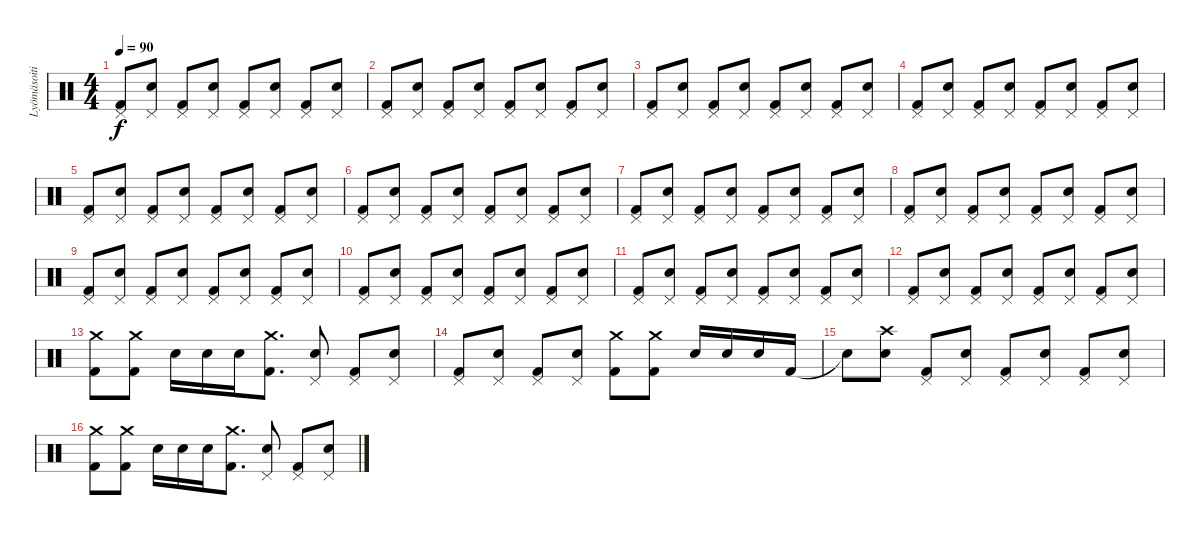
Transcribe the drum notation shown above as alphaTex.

\track ("Lyömäsoitin" "Lyömäsoiti") {instrument percussion}
\staff {score}
\articulation defaults
\ts (4 4)
\tempo 90
\clef neutral
\ks c
("Pedal Hi-Hat (hit)" "Kick (hit) 2").8{dy f} ("Pedal Hi-Hat (hit)" "Snare (hit) 2").8 ("Pedal Hi-Hat (hit)" "Kick (hit) 2").8 ("Pedal Hi-Hat (hit)" "Snare (hit) 2").8 ("Pedal Hi-Hat (hit)" "Kick (hit) 2").8 ("Pedal Hi-Hat (hit)" "Snare (hit) 2").8 ("Pedal Hi-Hat (hit)" "Kick (hit) 2").8 ("Pedal Hi-Hat (hit)" "Snare (hit) 2").8 |
("Pedal Hi-Hat (hit)" "Kick (hit) 2").8 ("Pedal Hi-Hat (hit)" "Snare (hit) 2").8 ("Pedal Hi-Hat (hit)" "Kick (hit) 2").8 ("Pedal Hi-Hat (hit)" "Snare (hit) 2").8 ("Pedal Hi-Hat (hit)" "Kick (hit) 2").8 ("Pedal Hi-Hat (hit)" "Snare (hit) 2").8 ("Pedal Hi-Hat (hit)" "Kick (hit) 2").8 ("Pedal Hi-Hat (hit)" "Snare (hit) 2").8 |
("Pedal Hi-Hat (hit)" "Kick (hit) 2").8 ("Pedal Hi-Hat (hit)" "Snare (hit) 2").8 ("Pedal Hi-Hat (hit)" "Kick (hit) 2").8 ("Pedal Hi-Hat (hit)" "Snare (hit) 2").8 ("Pedal Hi-Hat (hit)" "Kick (hit) 2").8 ("Pedal Hi-Hat (hit)" "Snare (hit) 2").8 ("Pedal Hi-Hat (hit)" "Kick (hit) 2").8 ("Pedal Hi-Hat (hit)" "Snare (hit) 2").8 |
("Pedal Hi-Hat (hit)" "Kick (hit) 2").8 ("Pedal Hi-Hat (hit)" "Snare (hit) 2").8 ("Pedal Hi-Hat (hit)" "Kick (hit) 2").8 ("Pedal Hi-Hat (hit)" "Snare (hit) 2").8 ("Pedal Hi-Hat (hit)" "Kick (hit) 2").8 ("Pedal Hi-Hat (hit)" "Snare (hit) 2").8 ("Pedal Hi-Hat (hit)" "Kick (hit) 2").8 ("Pedal Hi-Hat (hit)" "Snare (hit) 2").8 |
("Pedal Hi-Hat (hit)" "Kick (hit) 2").8 ("Pedal Hi-Hat (hit)" "Snare (hit) 2").8 ("Pedal Hi-Hat (hit)" "Kick (hit) 2").8 ("Pedal Hi-Hat (hit)" "Snare (hit) 2").8 ("Pedal Hi-Hat (hit)" "Kick (hit) 2").8 ("Pedal Hi-Hat (hit)" "Snare (hit) 2").8 ("Pedal Hi-Hat (hit)" "Kick (hit) 2").8 ("Pedal Hi-Hat (hit)" "Snare (hit) 2").8 |
("Pedal Hi-Hat (hit)" "Kick (hit) 2").8 ("Pedal Hi-Hat (hit)" "Snare (hit) 2").8 ("Pedal Hi-Hat (hit)" "Kick (hit) 2").8 ("Pedal Hi-Hat (hit)" "Snare (hit) 2").8 ("Pedal Hi-Hat (hit)" "Kick (hit) 2").8 ("Pedal Hi-Hat (hit)" "Snare (hit) 2").8 ("Pedal Hi-Hat (hit)" "Kick (hit) 2").8 ("Pedal Hi-Hat (hit)" "Snare (hit) 2").8 |
("Pedal Hi-Hat (hit)" "Kick (hit) 2").8 ("Pedal Hi-Hat (hit)" "Snare (hit) 2").8 ("Pedal Hi-Hat (hit)" "Kick (hit) 2").8 ("Pedal Hi-Hat (hit)" "Snare (hit) 2").8 ("Pedal Hi-Hat (hit)" "Kick (hit) 2").8 ("Pedal Hi-Hat (hit)" "Snare (hit) 2").8 ("Pedal Hi-Hat (hit)" "Kick (hit) 2").8 ("Pedal Hi-Hat (hit)" "Snare (hit) 2").8 |
("Pedal Hi-Hat (hit)" "Kick (hit) 2").8 ("Pedal Hi-Hat (hit)" "Snare (hit) 2").8 ("Pedal Hi-Hat (hit)" "Kick (hit) 2").8 ("Pedal Hi-Hat (hit)" "Snare (hit) 2").8 ("Pedal Hi-Hat (hit)" "Kick (hit) 2").8 ("Pedal Hi-Hat (hit)" "Snare (hit) 2").8 ("Pedal Hi-Hat (hit)" "Kick (hit) 2").8 ("Pedal Hi-Hat (hit)" "Snare (hit) 2").8 |
("Pedal Hi-Hat (hit)" "Kick (hit) 2").8 ("Pedal Hi-Hat (hit)" "Snare (hit) 2").8 ("Pedal Hi-Hat (hit)" "Kick (hit) 2").8 ("Pedal Hi-Hat (hit)" "Snare (hit) 2").8 ("Pedal Hi-Hat (hit)" "Kick (hit) 2").8 ("Pedal Hi-Hat (hit)" "Snare (hit) 2").8 ("Pedal Hi-Hat (hit)" "Kick (hit) 2").8 ("Pedal Hi-Hat (hit)" "Snare (hit) 2").8 |
("Pedal Hi-Hat (hit)" "Kick (hit) 2").8 ("Pedal Hi-Hat (hit)" "Snare (hit) 2").8 ("Pedal Hi-Hat (hit)" "Kick (hit) 2").8 ("Pedal Hi-Hat (hit)" "Snare (hit) 2").8 ("Pedal Hi-Hat (hit)" "Kick (hit) 2").8 ("Pedal Hi-Hat (hit)" "Snare (hit) 2").8 ("Pedal Hi-Hat (hit)" "Kick (hit) 2").8 ("Pedal Hi-Hat (hit)" "Snare (hit) 2").8 |
("Pedal Hi-Hat (hit)" "Kick (hit) 2").8 ("Pedal Hi-Hat (hit)" "Snare (hit) 2").8 ("Pedal Hi-Hat (hit)" "Kick (hit) 2").8 ("Pedal Hi-Hat (hit)" "Snare (hit) 2").8 ("Pedal Hi-Hat (hit)" "Kick (hit) 2").8 ("Pedal Hi-Hat (hit)" "Snare (hit) 2").8 ("Pedal Hi-Hat (hit)" "Kick (hit) 2").8 ("Pedal Hi-Hat (hit)" "Snare (hit) 2").8 |
("Pedal Hi-Hat (hit)" "Kick (hit) 2").8 ("Pedal Hi-Hat (hit)" "Snare (hit) 2").8 ("Pedal Hi-Hat (hit)" "Kick (hit) 2").8 ("Pedal Hi-Hat (hit)" "Snare (hit) 2").8 ("Pedal Hi-Hat (hit)" "Kick (hit) 2").8 ("Pedal Hi-Hat (hit)" "Snare (hit) 2").8 ("Pedal Hi-Hat (hit)" "Kick (hit) 2").8 ("Pedal Hi-Hat (hit)" "Snare (hit) 2").8 |
("Crash medium (hit)" "Kick (hit) 2").8 ("Crash medium (hit)" "Kick (hit) 2").8 "Snare (hit) 2".16 "Snare (hit) 2".16 "Snare (hit) 2".16 ("Crash medium (hit)" "Kick (hit) 2").8{d} ("Pedal Hi-Hat (hit)" "Snare (hit) 2").8 ("Pedal Hi-Hat (hit)" "Kick (hit) 2").8 ("Pedal Hi-Hat (hit)" "Snare (hit) 2").8 |
("Pedal Hi-Hat (hit)" "Kick (hit) 2").8 ("Pedal Hi-Hat (hit)" "Snare (hit) 2").8 ("Pedal Hi-Hat (hit)" "Kick (hit) 2").8 ("Pedal Hi-Hat (hit)" "Snare (hit) 2").8 ("Crash medium (hit)" "Kick (hit) 2").8 ("Crash medium (hit)" "Kick (hit) 2").8 "Snare (hit) 2".16 "Snare (hit) 2".16 "Snare (hit) 2".16 "Kick (hit) 2".16 |
"Snare (hit)"{t}.8 ("Crash high (hit)" "Snare (hit) 2").8 ("Pedal Hi-Hat (hit)" "Kick (hit) 2").8 ("Pedal Hi-Hat (hit)" "Snare (hit) 2").8 ("Pedal Hi-Hat (hit)" "Kick (hit) 2").8 ("Pedal Hi-Hat (hit)" "Snare (hit) 2").8 ("Pedal Hi-Hat (hit)" "Kick (hit) 2").8 ("Pedal Hi-Hat (hit)" "Snare (hit) 2").8 |
("Crash medium (hit)" "Kick (hit) 2").8 ("Crash medium (hit)" "Kick (hit) 2").8 "Snare (hit) 2".16 "Snare (hit) 2".16 "Snare (hit) 2".16 ("Crash medium (hit)" "Kick (hit) 2").8{d} ("Pedal Hi-Hat (hit)" "Snare (hit) 2").8 ("Pedal Hi-Hat (hit)" "Kick (hit) 2").8 ("Pedal Hi-Hat (hit)" "Snare (hit) 2").8
